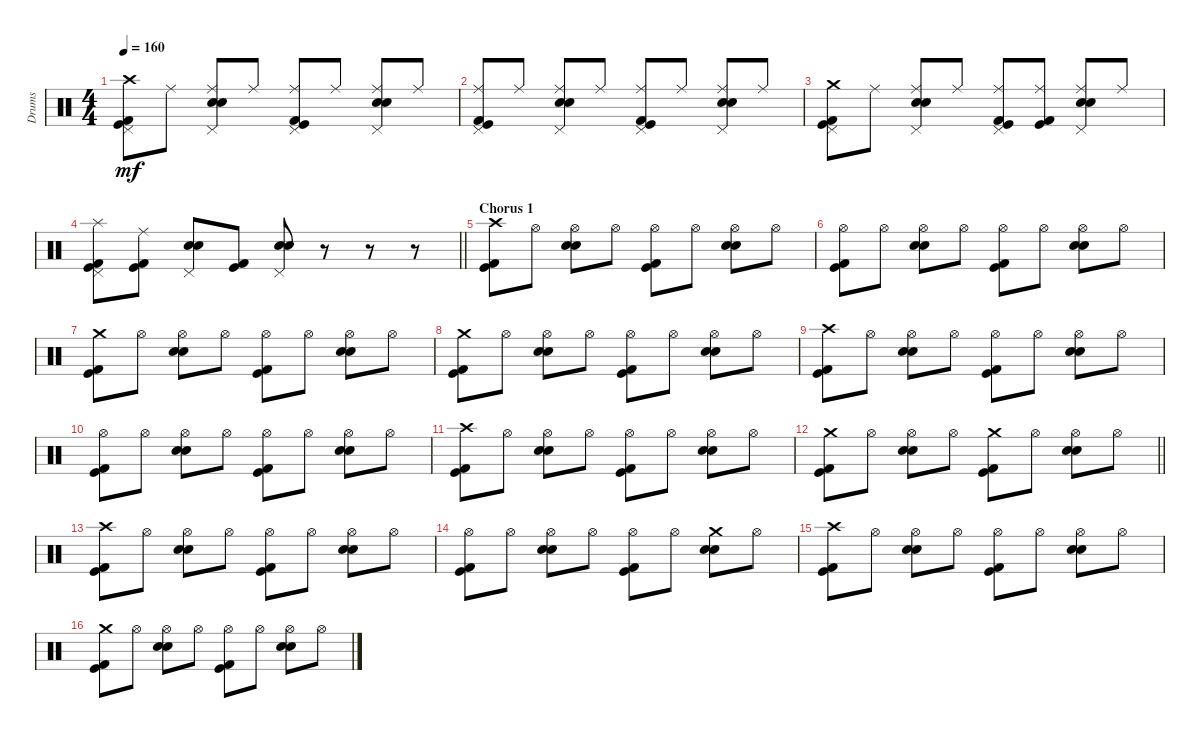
\track ("Drums" "Drums") {instrument percussion}
\staff {score}
\articulation defaults
\ts (4 4)
\tempo 160
\clef neutral
\ks c
("Crash high (hit)" "Pedal Hi-Hat (hit)" "Kick (hit) 2" "Kick (hit)").8{dy mf} "Ride (middle)".8 ("Ride (middle)" "Pedal Hi-Hat (hit)" "Snare (hit) 2" "Electric Snare (hit)").8 "Ride (middle)".8 ("Ride (middle)" "Pedal Hi-Hat (hit)" "Kick (hit) 2" "Kick (hit)").8 "Ride (middle)".8 ("Ride (middle)" "Pedal Hi-Hat (hit)" "Snare (hit) 2" "Electric Snare (hit)").8 "Ride (middle)".8 |
("Ride (middle)" "Pedal Hi-Hat (hit)" "Kick (hit) 2" "Kick (hit)").8 "Ride (middle)".8 ("Ride (middle)" "Pedal Hi-Hat (hit)" "Snare (hit) 2" "Electric Snare (hit)").8 "Ride (middle)".8 ("Ride (middle)" "Pedal Hi-Hat (hit)" "Kick (hit) 2" "Kick (hit)").8 "Ride (middle)".8 ("Ride (middle)" "Pedal Hi-Hat (hit)" "Snare (hit) 2" "Electric Snare (hit)").8 "Ride (middle)".8 |
("Crash medium (hit)" "Pedal Hi-Hat (hit)" "Kick (hit) 2" "Kick (hit)").8 "Ride (middle)".8 ("Ride (middle)" "Pedal Hi-Hat (hit)" "Snare (hit) 2" "Electric Snare (hit)").8 "Ride (middle)".8 ("Ride (middle)" "Pedal Hi-Hat (hit)" "Kick (hit) 2" "Kick (hit)").8 ("Ride (middle)" "Kick (hit) 2" "Kick (hit)").8 ("Ride (middle)" "Pedal Hi-Hat (hit)" "Snare (hit) 2" "Electric Snare (hit)").8 "Ride (middle)".8 |
\barLineRight lightlight
("Splash (hit)" "Pedal Hi-Hat (hit)" "Kick (hit) 2" "Kick (hit)").8 ("Ride (middle)" "Kick (hit) 2" "Kick (hit)").8 ("Pedal Hi-Hat (hit)" "Snare (hit) 2" "Electric Snare (hit)").8 ("Kick (hit) 2" "Kick (hit)").8 ("Pedal Hi-Hat (hit)" "Snare (hit) 2" "Electric Snare (hit)").8 r.8 r.8 r.8 |
\section ("" "Chorus 1")
("Crash high (hit)" "Kick (hit) 2" "Kick (hit)").8 "Hi-Hat (open)".8 ("Hi-Hat (open)" "Snare (hit) 2" "Electric Snare (hit)").8 "Hi-Hat (open)".8 ("Hi-Hat (open)" "Kick (hit) 2" "Kick (hit)").8 "Hi-Hat (open)".8 ("Hi-Hat (open)" "Snare (hit) 2" "Electric Snare (hit)").8 "Hi-Hat (open)".8 |
("Hi-Hat (open)" "Kick (hit) 2" "Kick (hit)").8 "Hi-Hat (open)".8 ("Hi-Hat (open)" "Snare (hit) 2" "Electric Snare (hit)").8 "Hi-Hat (open)".8 ("Hi-Hat (open)" "Kick (hit) 2" "Kick (hit)").8 "Hi-Hat (open)".8 ("Hi-Hat (open)" "Snare (hit) 2" "Electric Snare (hit)").8 "Hi-Hat (open)".8 |
("Crash medium (hit)" "Kick (hit) 2" "Kick (hit)").8 "Hi-Hat (open)".8 ("Hi-Hat (open)" "Snare (hit) 2" "Electric Snare (hit)").8 "Hi-Hat (open)".8 ("Hi-Hat (open)" "Kick (hit) 2" "Kick (hit)").8 "Hi-Hat (open)".8 ("Hi-Hat (open)" "Snare (hit) 2" "Electric Snare (hit)").8 "Hi-Hat (open)".8 |
("Crash medium (hit)" "Kick (hit) 2" "Kick (hit)").8 "Hi-Hat (open)".8 ("Hi-Hat (open)" "Snare (hit) 2" "Electric Snare (hit)").8 "Hi-Hat (open)".8 ("Hi-Hat (open)" "Kick (hit) 2" "Kick (hit)").8 "Hi-Hat (open)".8 ("Hi-Hat (open)" "Snare (hit) 2" "Electric Snare (hit)").8 "Hi-Hat (open)".8 |
("Crash high (hit)" "Kick (hit) 2" "Kick (hit)").8 "Hi-Hat (open)".8 ("Hi-Hat (open)" "Snare (hit) 2" "Electric Snare (hit)").8 "Hi-Hat (open)".8 ("Hi-Hat (open)" "Kick (hit) 2" "Kick (hit)").8 "Hi-Hat (open)".8 ("Hi-Hat (open)" "Snare (hit) 2" "Electric Snare (hit)").8 "Hi-Hat (open)".8 |
("Hi-Hat (open)" "Kick (hit) 2" "Kick (hit)").8 "Hi-Hat (open)".8 ("Hi-Hat (open)" "Snare (hit) 2" "Electric Snare (hit)").8 "Hi-Hat (open)".8 ("Hi-Hat (open)" "Kick (hit) 2" "Kick (hit)").8 "Hi-Hat (open)".8 ("Hi-Hat (open)" "Snare (hit) 2" "Electric Snare (hit)").8 "Hi-Hat (open)".8 |
("Crash high (hit)" "Kick (hit) 2" "Kick (hit)").8 "Hi-Hat (open)".8 ("Hi-Hat (open)" "Snare (hit) 2" "Electric Snare (hit)").8 "Hi-Hat (open)".8 ("Hi-Hat (open)" "Kick (hit) 2" "Kick (hit)").8 "Hi-Hat (open)".8 ("Hi-Hat (open)" "Snare (hit) 2" "Electric Snare (hit)").8 "Hi-Hat (open)".8 |
\barLineRight lightlight
("Crash medium (hit)" "Kick (hit) 2" "Kick (hit)").8 "Hi-Hat (open)".8 ("Hi-Hat (open)" "Snare (hit) 2" "Electric Snare (hit)").8 "Hi-Hat (open)".8 ("Crash medium (hit)" "Kick (hit) 2" "Kick (hit)").8 "Hi-Hat (open)".8 ("Hi-Hat (open)" "Snare (hit) 2" "Electric Snare (hit)").8 "Hi-Hat (open)".8 |
("Crash high (hit)" "Kick (hit) 2" "Kick (hit)").8 "Hi-Hat (open)".8 ("Hi-Hat (open)" "Snare (hit) 2" "Electric Snare (hit)").8 "Hi-Hat (open)".8 ("Hi-Hat (open)" "Kick (hit) 2" "Kick (hit)").8 "Hi-Hat (open)".8 ("Hi-Hat (open)" "Snare (hit) 2" "Electric Snare (hit)").8 "Hi-Hat (open)".8 |
("Hi-Hat (open)" "Kick (hit) 2" "Kick (hit)").8 "Hi-Hat (open)".8 ("Hi-Hat (open)" "Snare (hit) 2" "Electric Snare (hit)").8 "Hi-Hat (open)".8 ("Hi-Hat (open)" "Kick (hit) 2" "Kick (hit)").8 "Hi-Hat (open)".8 ("Crash medium (hit)" "Snare (hit) 2" "Electric Snare (hit)").8 "Hi-Hat (open)".8 |
("Crash high (hit)" "Kick (hit) 2" "Kick (hit)").8 "Hi-Hat (open)".8 ("Hi-Hat (open)" "Snare (hit) 2" "Electric Snare (hit)").8 "Hi-Hat (open)".8 ("Hi-Hat (open)" "Kick (hit) 2" "Kick (hit)").8 "Hi-Hat (open)".8 ("Hi-Hat (open)" "Snare (hit) 2" "Electric Snare (hit)").8 "Hi-Hat (open)".8 |
("Crash medium (hit)" "Kick (hit) 2" "Kick (hit)").8 "Hi-Hat (open)".8 ("Hi-Hat (open)" "Snare (hit) 2" "Electric Snare (hit)").8 "Hi-Hat (open)".8 ("Hi-Hat (open)" "Kick (hit) 2" "Kick (hit)").8 "Hi-Hat (open)".8 ("Hi-Hat (open)" "Snare (hit) 2" "Electric Snare (hit)").8 "Hi-Hat (open)".8
